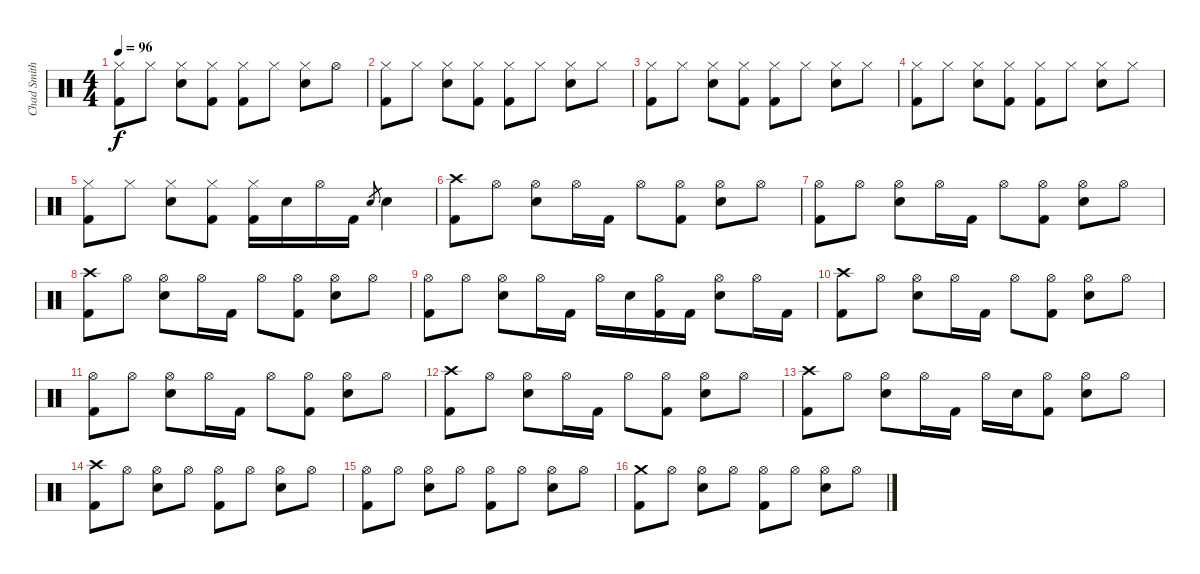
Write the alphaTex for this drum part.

\track ("Chad Smith" "Chad Smith") {instrument percussion}
\staff {score}
\articulation defaults
\ts (4 4)
\tempo 96
\clef neutral
\ks c
("Hi-Hat (closed)" "Kick (hit) 2").8{dy f} "Hi-Hat (closed)".8 ("Hi-Hat (closed)" "Electric Snare (hit)").8 ("Hi-Hat (closed)" "Kick (hit) 2").8 ("Hi-Hat (closed)" "Kick (hit) 2").8 "Hi-Hat (closed)".8 ("Hi-Hat (closed)" "Electric Snare (hit)").8 "Hi-Hat (open)".8 |
("Hi-Hat (closed)" "Kick (hit) 2").8 "Hi-Hat (closed)".8 ("Hi-Hat (closed)" "Electric Snare (hit)").8 ("Hi-Hat (closed)" "Kick (hit) 2").8 ("Hi-Hat (closed)" "Kick (hit) 2").8 "Hi-Hat (closed)".8 ("Hi-Hat (closed)" "Electric Snare (hit)").8 "Hi-Hat (closed)".8 |
("Hi-Hat (closed)" "Kick (hit) 2").8 "Hi-Hat (closed)".8 ("Hi-Hat (closed)" "Electric Snare (hit)").8 ("Hi-Hat (closed)" "Kick (hit) 2").8 ("Hi-Hat (closed)" "Kick (hit) 2").8 "Hi-Hat (closed)".8 ("Hi-Hat (closed)" "Electric Snare (hit)").8 "Hi-Hat (closed)".8 |
("Hi-Hat (closed)" "Kick (hit) 2").8 "Hi-Hat (closed)".8 ("Hi-Hat (closed)" "Electric Snare (hit)").8 ("Hi-Hat (closed)" "Kick (hit) 2").8 ("Hi-Hat (closed)" "Kick (hit) 2").8 "Hi-Hat (closed)".8 ("Hi-Hat (closed)" "Electric Snare (hit)").8 "Hi-Hat (closed)".8 |
("Hi-Hat (closed)" "Kick (hit) 2").8 "Hi-Hat (closed)".8 ("Hi-Hat (closed)" "Electric Snare (hit)").8 ("Hi-Hat (closed)" "Kick (hit) 2").8 ("Hi-Hat (closed)" "Kick (hit) 2").16 "Electric Snare (hit)".16 "Hi-Hat (open)".16 "Kick (hit) 2".16 "Electric Snare (hit)".8{gr} "Electric Snare (hit)".4 |
("Crash high (hit)" "Kick (hit) 2").8 "Hi-Hat (open)".8 ("Hi-Hat (open)" "Electric Snare (hit)").8 "Hi-Hat (open)".16 "Kick (hit) 2".16 "Hi-Hat (open)".8 ("Hi-Hat (open)" "Kick (hit) 2").8 ("Hi-Hat (open)" "Electric Snare (hit)").8 "Hi-Hat (open)".8 |
("Hi-Hat (open)" "Kick (hit) 2").8 "Hi-Hat (open)".8 ("Hi-Hat (open)" "Electric Snare (hit)").8 "Hi-Hat (open)".16 "Kick (hit) 2".16 "Hi-Hat (open)".8 ("Hi-Hat (open)" "Kick (hit) 2").8 ("Hi-Hat (open)" "Electric Snare (hit)").8 "Hi-Hat (open)".8 |
("Crash high (hit)" "Kick (hit) 2").8 "Hi-Hat (open)".8 ("Hi-Hat (open)" "Electric Snare (hit)").8 "Hi-Hat (open)".16 "Kick (hit) 2".16 "Hi-Hat (open)".8 ("Hi-Hat (open)" "Kick (hit) 2").8 ("Hi-Hat (open)" "Electric Snare (hit)").8 "Hi-Hat (open)".8 |
("Hi-Hat (open)" "Kick (hit) 2").8 "Hi-Hat (open)".8 ("Hi-Hat (open)" "Electric Snare (hit)").8 "Hi-Hat (open)".16 "Kick (hit) 2".16 "Hi-Hat (open)".16 "Electric Snare (hit)".16 ("Hi-Hat (open)" "Kick (hit) 2").16 "Kick (hit) 2".16 ("Hi-Hat (open)" "Electric Snare (hit)").8 "Hi-Hat (open)".16 "Kick (hit) 2".16 |
("Crash high (hit)" "Kick (hit) 2").8 "Hi-Hat (open)".8 ("Hi-Hat (open)" "Electric Snare (hit)").8 "Hi-Hat (open)".16 "Kick (hit) 2".16 "Hi-Hat (open)".8 ("Hi-Hat (open)" "Kick (hit) 2").8 ("Hi-Hat (open)" "Electric Snare (hit)").8 "Hi-Hat (open)".8 |
("Hi-Hat (open)" "Kick (hit) 2").8 "Hi-Hat (open)".8 ("Hi-Hat (open)" "Electric Snare (hit)").8 "Hi-Hat (open)".16 "Kick (hit) 2".16 "Hi-Hat (open)".8 ("Hi-Hat (open)" "Kick (hit) 2").8 ("Hi-Hat (open)" "Electric Snare (hit)").8 "Hi-Hat (open)".8 |
("Crash high (hit)" "Kick (hit) 2").8 "Hi-Hat (open)".8 ("Hi-Hat (open)" "Electric Snare (hit)").8 "Hi-Hat (open)".16 "Kick (hit) 2".16 "Hi-Hat (open)".8 ("Hi-Hat (open)" "Kick (hit) 2").8 ("Hi-Hat (open)" "Electric Snare (hit)").8 "Hi-Hat (open)".8 |
("Crash high (hit)" "Kick (hit) 2").8 "Hi-Hat (open)".8 ("Hi-Hat (open)" "Electric Snare (hit)").8 "Hi-Hat (open)".16 "Kick (hit) 2".16 "Hi-Hat (open)".16 "Electric Snare (hit)".16 ("Hi-Hat (open)" "Kick (hit) 2").8 ("Hi-Hat (open)" "Electric Snare (hit)").8 "Hi-Hat (open)".8 |
("Crash high (hit)" "Kick (hit) 2").8 "Hi-Hat (open)".8 ("Hi-Hat (open)" "Electric Snare (hit)").8 "Hi-Hat (open)".8 ("Hi-Hat (open)" "Kick (hit) 2").8 "Hi-Hat (open)".8 ("Hi-Hat (open)" "Electric Snare (hit)").8 "Hi-Hat (open)".8 |
("Hi-Hat (open)" "Kick (hit) 2").8 "Hi-Hat (open)".8 ("Hi-Hat (open)" "Electric Snare (hit)").8 "Hi-Hat (open)".8 ("Hi-Hat (open)" "Kick (hit) 2").8 "Hi-Hat (open)".8 ("Hi-Hat (open)" "Electric Snare (hit)").8 "Hi-Hat (open)".8 |
("Crash medium (hit)" "Kick (hit) 2").8 "Hi-Hat (open)".8 ("Hi-Hat (open)" "Electric Snare (hit)").8 "Hi-Hat (open)".8 ("Hi-Hat (open)" "Kick (hit) 2").8 "Hi-Hat (open)".8 ("Hi-Hat (open)" "Electric Snare (hit)").8 "Hi-Hat (open)".8
